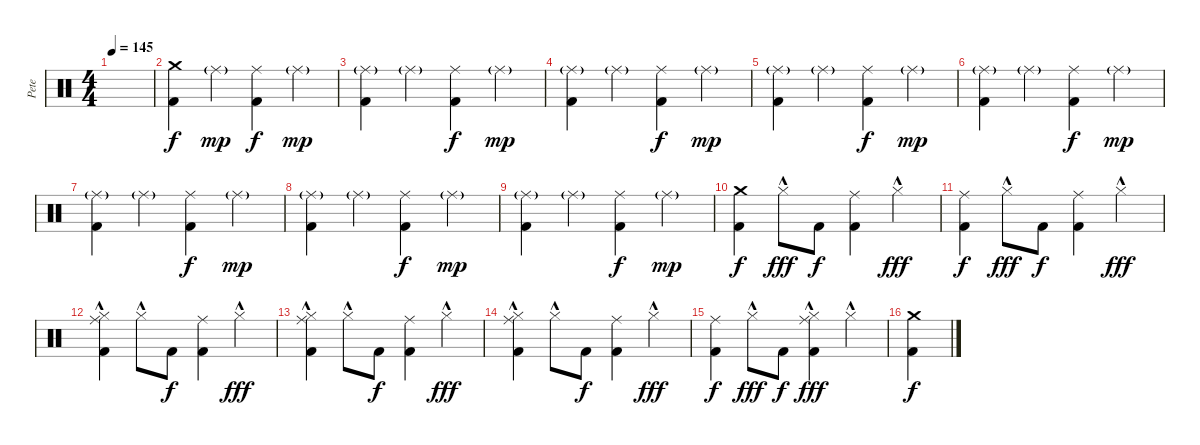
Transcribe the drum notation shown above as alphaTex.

\track ("Pete" "Pete") {instrument percussion}
\staff {score}
\articulation defaults
\ts (4 4)
\tempo 145
\clef neutral
\ks c
|
("Crash medium (hit)" "Kick (hit) 2").4{dy f} "Ride (middle)"{g}.4{dy mp} ("Ride (middle)" "Kick (hit) 2").4{dy f} "Ride (middle)"{g}.4{dy mp} |
("Ride (middle)"{g} "Kick (hit) 2").4 "Ride (middle)"{g}.4 ("Ride (middle)" "Kick (hit) 2").4{dy f} "Ride (middle)"{g}.4{dy mp} |
("Ride (middle)"{g} "Kick (hit) 2").4 "Ride (middle)"{g}.4 ("Ride (middle)" "Kick (hit) 2").4{dy f} "Ride (middle)"{g}.4{dy mp} |
("Ride (middle)"{g} "Kick (hit) 2").4 "Ride (middle)"{g}.4 ("Ride (middle)" "Kick (hit) 2").4{dy f} "Ride (middle)"{g}.4{dy mp} |
("Ride (middle)"{g} "Kick (hit) 2").4 "Ride (middle)"{g}.4 ("Ride (middle)" "Kick (hit) 2").4{dy f} "Ride (middle)"{g}.4{dy mp} |
("Ride (middle)"{g} "Kick (hit) 2").4 "Ride (middle)"{g}.4 ("Ride (middle)" "Kick (hit) 2").4{dy f} "Ride (middle)"{g}.4{dy mp} |
("Ride (middle)"{g} "Kick (hit) 2").4 "Ride (middle)"{g}.4 ("Ride (middle)" "Kick (hit) 2").4{dy f} "Ride (middle)"{g}.4{dy mp} |
("Ride (middle)"{g} "Kick (hit) 2").4 "Ride (middle)"{g}.4 ("Ride (middle)" "Kick (hit) 2").4{dy f} "Ride (middle)"{g}.4{dy mp} |
("Crash medium (hit)" "Kick (hit) 2").4{dy f} "Hi-Hat (closed)"{hac}.8{dy fff} "Kick (hit) 2".8{dy f} ("Ride (middle)" "Kick (hit) 2").4 "Hi-Hat (closed)"{hac}.4{dy fff} |
("Ride (middle)" "Kick (hit) 2").4{dy f} "Hi-Hat (closed)"{hac}.8{dy fff} "Kick (hit) 2".8{dy f} ("Ride (middle)" "Kick (hit) 2").4 "Hi-Hat (closed)"{hac}.4{dy fff} |
("Ride (middle)" "Hi-Hat (closed)"{hac} "Kick (hit) 2").4 "Hi-Hat (closed)"{hac}.8 "Kick (hit) 2".8{dy f} ("Ride (middle)" "Kick (hit) 2").4 "Hi-Hat (closed)"{hac}.4{dy fff} |
("Ride (middle)" "Hi-Hat (closed)"{hac} "Kick (hit) 2").4 "Hi-Hat (closed)"{hac}.8 "Kick (hit) 2".8{dy f} ("Ride (middle)" "Kick (hit) 2").4 "Hi-Hat (closed)"{hac}.4{dy fff} |
("Ride (middle)" "Hi-Hat (closed)"{hac} "Kick (hit) 2").4 "Hi-Hat (closed)"{hac}.8 "Kick (hit) 2".8{dy f} ("Ride (middle)" "Kick (hit) 2").4 "Hi-Hat (closed)"{hac}.4{dy fff} |
("Ride (middle)" "Kick (hit) 2").4{dy f} "Hi-Hat (closed)"{hac}.8{dy fff} "Kick (hit) 2".8{dy f} ("Ride (middle)" "Hi-Hat (closed)"{hac} "Kick (hit) 2").4{dy fff} "Hi-Hat (closed)"{hac}.4 |
("Crash medium (hit)" "Kick (hit) 2").4{dy f}
